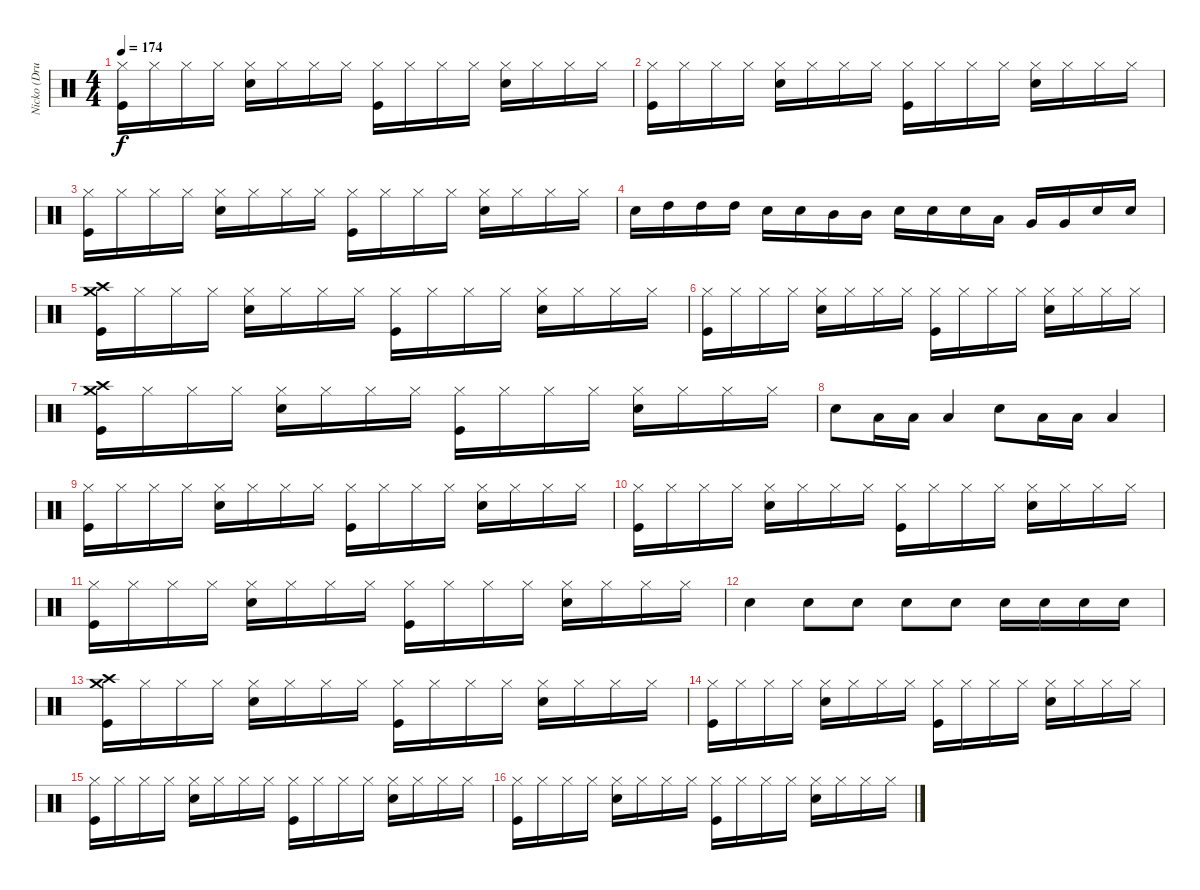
\track ("Nicko (Drums)" "Nicko (Dru") {instrument percussion}
\staff {score}
\articulation defaults
\ts (4 4)
\tempo 174
\clef neutral
\ks c
("Hi-Hat (closed)" "Kick (hit)").16{dy f} "Hi-Hat (closed)".16 "Hi-Hat (closed)".16 "Hi-Hat (closed)".16 ("Hi-Hat (closed)" "Electric Snare (hit)").16 "Hi-Hat (closed)".16 "Hi-Hat (closed)".16 "Hi-Hat (closed)".16 ("Hi-Hat (closed)" "Kick (hit)").16 "Hi-Hat (closed)".16 "Hi-Hat (closed)".16 "Hi-Hat (closed)".16 ("Hi-Hat (closed)" "Electric Snare (hit)").16 "Hi-Hat (closed)".16 "Hi-Hat (closed)".16 "Hi-Hat (closed)".16 |
("Hi-Hat (closed)" "Kick (hit)").16 "Hi-Hat (closed)".16 "Hi-Hat (closed)".16 "Hi-Hat (closed)".16 ("Hi-Hat (closed)" "Electric Snare (hit)").16 "Hi-Hat (closed)".16 "Hi-Hat (closed)".16 "Hi-Hat (closed)".16 ("Hi-Hat (closed)" "Kick (hit)").16 "Hi-Hat (closed)".16 "Hi-Hat (closed)".16 "Hi-Hat (closed)".16 ("Hi-Hat (closed)" "Electric Snare (hit)").16 "Hi-Hat (closed)".16 "Hi-Hat (closed)".16 "Hi-Hat (closed)".16 |
("Hi-Hat (closed)" "Kick (hit)").16 "Hi-Hat (closed)".16 "Hi-Hat (closed)".16 "Hi-Hat (closed)".16 ("Hi-Hat (closed)" "Electric Snare (hit)").16 "Hi-Hat (closed)".16 "Hi-Hat (closed)".16 "Hi-Hat (closed)".16 ("Hi-Hat (closed)" "Kick (hit)").16 "Hi-Hat (closed)".16 "Hi-Hat (closed)".16 "Hi-Hat (closed)".16 ("Hi-Hat (closed)" "Electric Snare (hit)").16 "Hi-Hat (closed)".16 "Hi-Hat (closed)".16 "Hi-Hat (closed)".16 |
"Electric Snare (hit)".16 "High Tom (hit)".16 "High Tom (hit)".16 "High Tom (hit)".16 "Electric Snare (hit)".16 "Electric Snare (hit)".16 "Mid Tom (hit)".16 "Mid Tom (hit)".16 "Electric Snare (hit)".16 "Electric Snare (hit)".16 "Electric Snare (hit)".16 "Low Tom (hit)".16 "Very Low Tom (hit)".16 "Very Low Tom (hit)".16 "Electric Snare (hit)".16 "Electric Snare (hit)".16 |
("Crash medium (hit)" "Crash high (hit)" "Kick (hit)").16 "Hi-Hat (closed)".16 "Hi-Hat (closed)".16 "Hi-Hat (closed)".16 ("Hi-Hat (closed)" "Electric Snare (hit)").16 "Hi-Hat (closed)".16 "Hi-Hat (closed)".16 "Hi-Hat (closed)".16 ("Hi-Hat (closed)" "Kick (hit)").16 "Hi-Hat (closed)".16 "Hi-Hat (closed)".16 "Hi-Hat (closed)".16 ("Hi-Hat (closed)" "Electric Snare (hit)").16 "Hi-Hat (closed)".16 "Hi-Hat (closed)".16 "Hi-Hat (closed)".16 |
("Hi-Hat (closed)" "Kick (hit)").16 "Hi-Hat (closed)".16 "Hi-Hat (closed)".16 "Hi-Hat (closed)".16 ("Hi-Hat (closed)" "Electric Snare (hit)").16 "Hi-Hat (closed)".16 "Hi-Hat (closed)".16 "Hi-Hat (closed)".16 ("Hi-Hat (closed)" "Kick (hit)").16 "Hi-Hat (closed)".16 "Hi-Hat (closed)".16 "Hi-Hat (closed)".16 ("Hi-Hat (closed)" "Electric Snare (hit)").16 "Hi-Hat (closed)".16 "Hi-Hat (closed)".16 "Hi-Hat (closed)".16 |
("Crash high (hit)" "Crash medium (hit)" "Kick (hit)").16 "Hi-Hat (closed)".16 "Hi-Hat (closed)".16 "Hi-Hat (closed)".16 ("Hi-Hat (closed)" "Electric Snare (hit)").16 "Hi-Hat (closed)".16 "Hi-Hat (closed)".16 "Hi-Hat (closed)".16 ("Hi-Hat (closed)" "Kick (hit)").16 "Hi-Hat (closed)".16 "Hi-Hat (closed)".16 "Hi-Hat (closed)".16 ("Hi-Hat (closed)" "Electric Snare (hit)").16 "Hi-Hat (closed)".16 "Hi-Hat (closed)".16 "Hi-Hat (closed)".16 |
"Snare (hit) 2".8 "Low Tom (hit)".16 "Low Tom (hit)".16 "Low Tom (hit)".4 "Snare (hit) 2".8 "Low Tom (hit)".16 "Low Tom (hit)".16 "Low Tom (hit)".4 |
("Hi-Hat (closed)" "Kick (hit)").16 "Hi-Hat (closed)".16 "Hi-Hat (closed)".16 "Hi-Hat (closed)".16 ("Hi-Hat (closed)" "Electric Snare (hit)").16 "Hi-Hat (closed)".16 "Hi-Hat (closed)".16 "Hi-Hat (closed)".16 ("Hi-Hat (closed)" "Kick (hit)").16 "Hi-Hat (closed)".16 "Hi-Hat (closed)".16 "Hi-Hat (closed)".16 ("Hi-Hat (closed)" "Electric Snare (hit)").16 "Hi-Hat (closed)".16 "Hi-Hat (closed)".16 "Hi-Hat (closed)".16 |
("Hi-Hat (closed)" "Kick (hit)").16 "Hi-Hat (closed)".16 "Hi-Hat (closed)".16 "Hi-Hat (closed)".16 ("Hi-Hat (closed)" "Electric Snare (hit)").16 "Hi-Hat (closed)".16 "Hi-Hat (closed)".16 "Hi-Hat (closed)".16 ("Hi-Hat (closed)" "Kick (hit)").16 "Hi-Hat (closed)".16 "Hi-Hat (closed)".16 "Hi-Hat (closed)".16 ("Hi-Hat (closed)" "Electric Snare (hit)").16 "Hi-Hat (closed)".16 "Hi-Hat (closed)".16 "Hi-Hat (closed)".16 |
("Hi-Hat (closed)" "Kick (hit)").16 "Hi-Hat (closed)".16 "Hi-Hat (closed)".16 "Hi-Hat (closed)".16 ("Hi-Hat (closed)" "Electric Snare (hit)").16 "Hi-Hat (closed)".16 "Hi-Hat (closed)".16 "Hi-Hat (closed)".16 ("Hi-Hat (closed)" "Kick (hit)").16 "Hi-Hat (closed)".16 "Hi-Hat (closed)".16 "Hi-Hat (closed)".16 ("Hi-Hat (closed)" "Electric Snare (hit)").16 "Hi-Hat (closed)".16 "Hi-Hat (closed)".16 "Hi-Hat (closed)".16 |
"Snare (hit) 2".4 "Snare (hit) 2".8 "Snare (hit) 2".8 "Snare (hit) 2".8 "Snare (hit) 2".8 "Snare (hit) 2".16 "Snare (hit) 2".16 "Snare (hit) 2".16 "Snare (hit) 2".16 |
("Crash high (hit)" "Crash medium (hit)" "Kick (hit)").16 "Hi-Hat (closed)".16 "Hi-Hat (closed)".16 "Hi-Hat (closed)".16 ("Hi-Hat (closed)" "Electric Snare (hit)").16 "Hi-Hat (closed)".16 "Hi-Hat (closed)".16 "Hi-Hat (closed)".16 ("Hi-Hat (closed)" "Kick (hit)").16 "Hi-Hat (closed)".16 "Hi-Hat (closed)".16 "Hi-Hat (closed)".16 ("Hi-Hat (closed)" "Electric Snare (hit)").16 "Hi-Hat (closed)".16 "Hi-Hat (closed)".16 "Hi-Hat (closed)".16 |
("Hi-Hat (closed)" "Kick (hit)").16 "Hi-Hat (closed)".16 "Hi-Hat (closed)".16 "Hi-Hat (closed)".16 ("Hi-Hat (closed)" "Electric Snare (hit)").16 "Hi-Hat (closed)".16 "Hi-Hat (closed)".16 "Hi-Hat (closed)".16 ("Hi-Hat (closed)" "Kick (hit)").16 "Hi-Hat (closed)".16 "Hi-Hat (closed)".16 "Hi-Hat (closed)".16 ("Hi-Hat (closed)" "Electric Snare (hit)").16 "Hi-Hat (closed)".16 "Hi-Hat (closed)".16 "Hi-Hat (closed)".16 |
("Hi-Hat (closed)" "Kick (hit)").16 "Hi-Hat (closed)".16 "Hi-Hat (closed)".16 "Hi-Hat (closed)".16 ("Hi-Hat (closed)" "Electric Snare (hit)").16 "Hi-Hat (closed)".16 "Hi-Hat (closed)".16 "Hi-Hat (closed)".16 ("Hi-Hat (closed)" "Kick (hit)").16 "Hi-Hat (closed)".16 "Hi-Hat (closed)".16 "Hi-Hat (closed)".16 ("Hi-Hat (closed)" "Electric Snare (hit)").16 "Hi-Hat (closed)".16 "Hi-Hat (closed)".16 "Hi-Hat (closed)".16 |
("Hi-Hat (closed)" "Kick (hit)").16 "Hi-Hat (closed)".16 "Hi-Hat (closed)".16 "Hi-Hat (closed)".16 ("Hi-Hat (closed)" "Electric Snare (hit)").16 "Hi-Hat (closed)".16 "Hi-Hat (closed)".16 "Hi-Hat (closed)".16 ("Hi-Hat (closed)" "Kick (hit)").16 "Hi-Hat (closed)".16 "Hi-Hat (closed)".16 "Hi-Hat (closed)".16 ("Hi-Hat (closed)" "Electric Snare (hit)").16 "Hi-Hat (closed)".16 "Hi-Hat (closed)".16 "Hi-Hat (closed)".16
